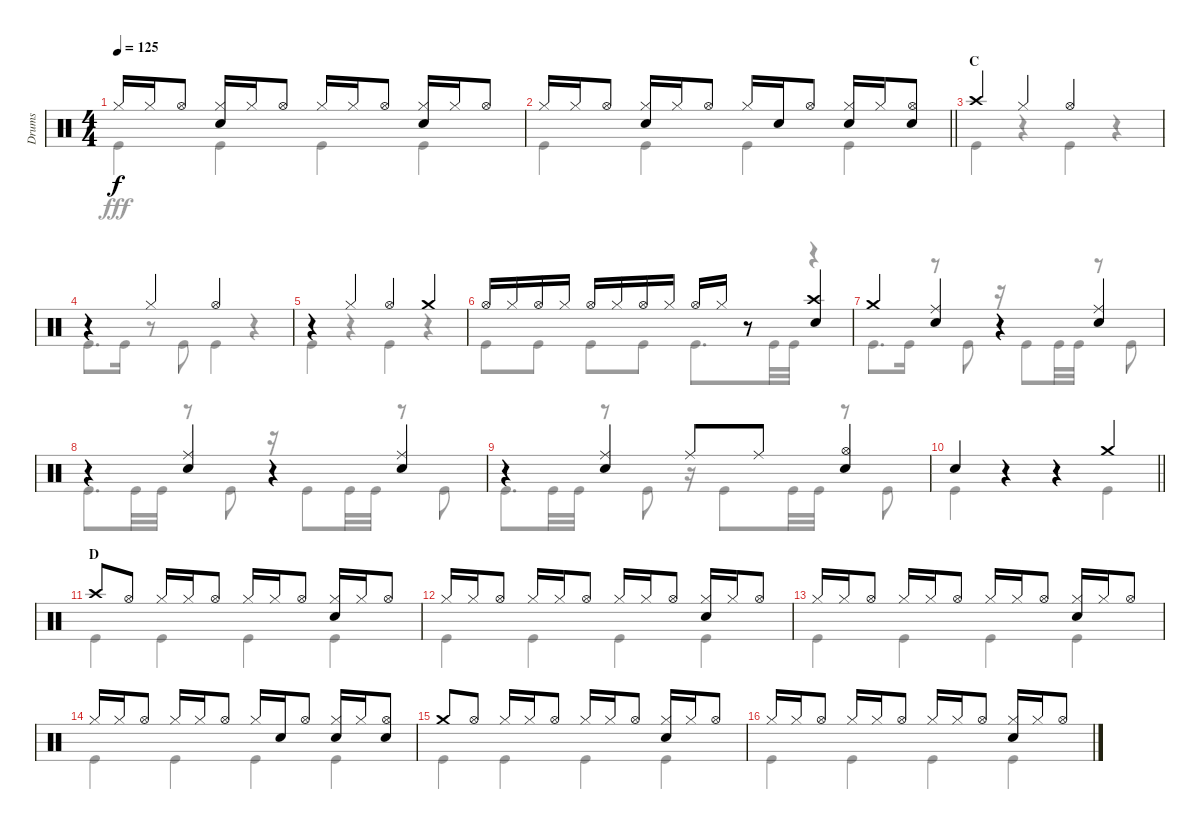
\track ("Drums" "Drums") {instrument percussion}
\staff {score}
\articulation defaults
\voice
\ts (4 4)
\tempo 125
\clef neutral
\ks c "Hi-Hat (closed)".16{dy f} "Hi-Hat (closed)".16 "Hi-Hat (open)".8
("Hi-Hat (closed)" "Snare (hit) 2").16 "Hi-Hat (closed)".16 "Hi-Hat (open)".8 "Hi-Hat (closed)".16 "Hi-Hat (closed)".16 "Hi-Hat (open)".8 ("Hi-Hat (closed)" "Snare (hit) 2").16 "Hi-Hat (closed)".16 "Hi-Hat (open)".8 |
\barLineRight lightlight "Hi-Hat (closed)".16 "Hi-Hat (closed)".16 "Hi-Hat (open)".8
("Hi-Hat (closed)" "Snare (hit) 2").16 "Hi-Hat (closed)".16 "Hi-Hat (open)".8 "Hi-Hat (closed)".16 "Snare (hit) 2".16 "Hi-Hat (open)".8 ("Hi-Hat (closed)" "Snare (hit) 2").16 "Hi-Hat (closed)".16 ("Hi-Hat (open)" "Snare (hit) 2").8 |
\section ("" "C")
"Crash high (hit)".4 "Hi-Hat (closed)".4 "Hi-Hat (open)".2 |
r.4 "Hi-Hat (closed)".4 "Hi-Hat (open)".2 |
r.4 "Hi-Hat (closed)".4 "Hi-Hat (open)".4 "Crash medium (hit)".4 |
"Hi-Hat (open)".16 "Hi-Hat (closed)".16 "Hi-Hat (open)".16 "Hi-Hat (closed)".16 "Hi-Hat (open)".16 "Hi-Hat (closed)".16 "Hi-Hat (open)".16 "Hi-Hat (closed)".16 "Hi-Hat (open)".16 "Hi-Hat (closed)".16 r.8 ("Crash high (hit)" "Snare (hit) 2").4 |
"Crash medium (hit)".4 ("Ride (middle)" "Snare (hit) 2").4 r.4 ("Ride (middle)" "Snare (hit) 2").4 |
r.4 ("Ride (middle)" "Snare (hit) 2").4 r.4 ("Ride (middle)" "Snare (hit) 2").4 |
r.4 ("Ride (middle)" "Snare (hit) 2").4 "Ride (middle)".8 "Ride (middle)".8 ("Hi-Hat (open)" "Snare (hit) 2").4 |
\barLineRight lightlight "Snare (hit) 2".4
r.4 r.4 "Crash medium (hit)".4 |
\section ("" "D")
"Crash high (hit)".8 "Hi-Hat (open)".8 "Hi-Hat (closed)".16 "Hi-Hat (closed)".16 "Hi-Hat (open)".8 "Hi-Hat (closed)".16 "Hi-Hat (closed)".16 "Hi-Hat (open)".8 ("Hi-Hat (closed)" "Snare (hit) 2").16 "Hi-Hat (closed)".16 "Hi-Hat (open)".8 |
"Hi-Hat (closed)".16 "Hi-Hat (closed)".16 "Hi-Hat (open)".8 "Hi-Hat (closed)".16 "Hi-Hat (closed)".16 "Hi-Hat (open)".8 "Hi-Hat (closed)".16 "Hi-Hat (closed)".16 "Hi-Hat (open)".8 ("Hi-Hat (closed)" "Snare (hit) 2").16 "Hi-Hat (closed)".16 "Hi-Hat (open)".8 |
"Hi-Hat (closed)".16 "Hi-Hat (closed)".16 "Hi-Hat (open)".8 "Hi-Hat (closed)".16 "Hi-Hat (closed)".16 "Hi-Hat (open)".8 "Hi-Hat (closed)".16 "Hi-Hat (closed)".16 "Hi-Hat (open)".8 ("Hi-Hat (closed)" "Snare (hit) 2").16 "Hi-Hat (closed)".16 "Hi-Hat (open)".8 |
"Hi-Hat (closed)".16 "Hi-Hat (closed)".16 "Hi-Hat (open)".8 "Hi-Hat (closed)".16 "Hi-Hat (closed)".16 "Hi-Hat (open)".8 "Hi-Hat (closed)".16 "Snare (hit) 2".16 "Hi-Hat (open)".8 ("Hi-Hat (closed)" "Snare (hit) 2").16 "Hi-Hat (closed)".16 ("Hi-Hat (open)" "Snare (hit) 2").8 |
"Crash medium (hit)".8 "Hi-Hat (open)".8 "Hi-Hat (closed)".16 "Hi-Hat (closed)".16 "Hi-Hat (open)".8 "Hi-Hat (closed)".16 "Hi-Hat (closed)".16 "Hi-Hat (open)".8 ("Hi-Hat (closed)" "Snare (hit) 2").16 "Hi-Hat (closed)".16 "Hi-Hat (open)".8 |
"Hi-Hat (closed)".16 "Hi-Hat (closed)".16 "Hi-Hat (open)".8 "Hi-Hat (closed)".16 "Hi-Hat (closed)".16 "Hi-Hat (open)".8 "Hi-Hat (closed)".16 "Hi-Hat (closed)".16 "Hi-Hat (open)".8 ("Hi-Hat (closed)" "Snare (hit) 2").16 "Hi-Hat (closed)".16 "Hi-Hat (open)".8
\voice
\clef neutral
\ottava regular
\simile none
\ks c "Kick (hit)".4{dy fff} "Kick (hit)".4 "Kick (hit)".4 "Kick (hit)".4
|
\barLineRight lightlight "Kick (hit)".4 "Kick (hit)".4 "Kick (hit)".4 "Kick (hit)".4
|
"Kick (hit)".4 r.4 "Kick (hit)".4 r.4 |
"Kick (hit)".8{d} "Kick (hit)".16 r.8 "Kick (hit)".8 "Kick (hit)".4 r.4 |
"Kick (hit)".4 r.4 "Kick (hit)".4 r.4 |
"Kick (hit)".8 "Kick (hit)".8 "Kick (hit)".8 "Kick (hit)".8 "Kick (hit)".8{d} "Kick (hit)".32 "Kick (hit)".32 r.4 |
"Kick (hit)".8{d} "Kick (hit)".16 r.8 "Kick (hit)".8 r.16 "Kick (hit)".8 "Kick (hit)".32 "Kick (hit)".32 r.8 "Kick (hit)".8 |
"Kick (hit)".8{d} "Kick (hit)".32 "Kick (hit)".32 r.8 "Kick (hit)".8 r.16 "Kick (hit)".8 "Kick (hit)".32 "Kick (hit)".32 r.8 "Kick (hit)".8 |
"Kick (hit)".8{d} "Kick (hit)".32 "Kick (hit)".32 r.8 "Kick (hit)".8 r.16 "Kick (hit)".8 "Kick (hit)".32 "Kick (hit)".32 r.8 "Kick (hit)".8 |
\barLineRight lightlight "Kick (hit)".4
r.4 r.4 "Kick (hit)".4 |
"Kick (hit)".4 "Kick (hit)".4 "Kick (hit)".4 "Kick (hit)".4 |
"Kick (hit)".4 "Kick (hit)".4 "Kick (hit)".4 "Kick (hit)".4 |
"Kick (hit)".4 "Kick (hit)".4 "Kick (hit)".4 "Kick (hit)".4 |
"Kick (hit)".4 "Kick (hit)".4 "Kick (hit)".4 "Kick (hit)".4 |
"Kick (hit)".4 "Kick (hit)".4 "Kick (hit)".4 "Kick (hit)".4 |
"Kick (hit)".4 "Kick (hit)".4 "Kick (hit)".4 "Kick (hit)".4
